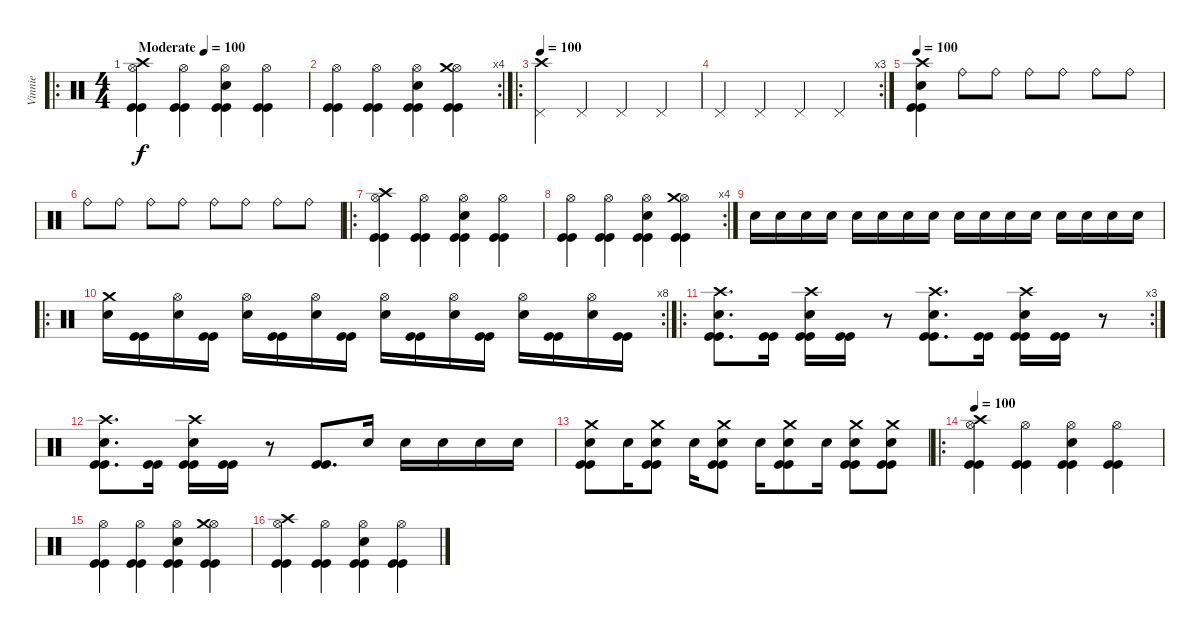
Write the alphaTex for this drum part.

\track ("Vinnie" "Vinnie") {instrument percussion}
\staff {score}
\articulation defaults
\ro
\ts (4 4)
\tempo (100 "Moderate")
\clef neutral
\ks c
("Hi-Hat (open)" "Crash high (hit)" "Kick (hit)" "Kick (hit)").4{dy f} ("Hi-Hat (open)" "Kick (hit)" "Kick (hit)").4 ("Hi-Hat (open)" "Snare (hit) 2" "Kick (hit)" "Kick (hit)").4 ("Hi-Hat (open)" "Kick (hit)" "Kick (hit)").4 |
\rc 4
("Hi-Hat (open)" "Kick (hit)" "Kick (hit)").4 ("Hi-Hat (open)" "Kick (hit)" "Kick (hit)").4 ("Hi-Hat (open)" "Snare (hit) 2" "Kick (hit)" "Kick (hit)").4 ("Hi-Hat (open)" "Crash medium (hit)" "Kick (hit)" "Kick (hit)").4 |
\ro
\tempo 100
("Pedal Hi-Hat (hit)" "Crash high (hit)").4 "Pedal Hi-Hat (hit)".4 "Pedal Hi-Hat (hit)".4 "Pedal Hi-Hat (hit)".4 |
\rc 3 "Pedal Hi-Hat (hit)".4 "Pedal Hi-Hat (hit)".4 "Pedal Hi-Hat (hit)".4 "Pedal Hi-Hat (hit)".4
|
\tempo 100
("Crash high (hit)" "Snare (hit) 2" "Kick (hit)" "Kick (hit)").4 "Ride (bell)".8{volume 5} "Ride (bell)".8 "Ride (bell)".8{volume 13} "Ride (bell)".8 "Ride (bell)".8 "Ride (bell)".8 |
"Ride (bell)".8 "Ride (bell)".8 "Ride (bell)".8 "Ride (bell)".8 "Ride (bell)".8 "Ride (bell)".8 "Ride (bell)".8 "Ride (bell)".8 |
\ro
("Hi-Hat (open)" "Crash high (hit)" "Kick (hit)" "Kick (hit)").4 ("Hi-Hat (open)" "Kick (hit)" "Kick (hit)").4 ("Hi-Hat (open)" "Snare (hit) 2" "Kick (hit)" "Kick (hit)").4 ("Hi-Hat (open)" "Kick (hit)" "Kick (hit)").4 |
\rc 4
("Hi-Hat (open)" "Kick (hit)" "Kick (hit)").4 ("Hi-Hat (open)" "Kick (hit)" "Kick (hit)").4 ("Hi-Hat (open)" "Snare (hit) 2" "Kick (hit)" "Kick (hit)").4 ("Hi-Hat (open)" "Crash medium (hit)" "Kick (hit)" "Kick (hit)").4 |
"Snare (hit) 2".16{volume 5} "Snare (hit) 2".16{volume 13} "Snare (hit) 2".16 "Snare (hit) 2".16 "Snare (hit) 2".16 "Snare (hit) 2".16 "Snare (hit) 2".16 "Snare (hit) 2".16 "Snare (hit) 2".16 "Snare (hit) 2".16 "Snare (hit) 2".16 "Snare (hit) 2".16 "Snare (hit) 2".16 "Snare (hit) 2".16 "Snare (hit) 2".16 "Snare (hit) 2".16 |
\ro
\rc 8
("Crash medium (hit)" "Snare (hit) 2").16 ("Kick (hit)" "Kick (hit)").16 ("Hi-Hat (open)" "Snare (hit) 2").16 ("Kick (hit)" "Kick (hit)").16 ("Hi-Hat (open)" "Snare (hit) 2").16 ("Kick (hit)" "Kick (hit)").16 ("Hi-Hat (open)" "Snare (hit) 2").16 ("Kick (hit)" "Kick (hit)").16 ("Hi-Hat (open)" "Snare (hit) 2").16 ("Kick (hit)" "Kick (hit)").16 ("Hi-Hat (open)" "Snare (hit) 2").16 ("Kick (hit)" "Kick (hit)").16 ("Hi-Hat (open)" "Snare (hit) 2").16 ("Kick (hit)" "Kick (hit)").16 ("Hi-Hat (open)" "Snare (hit) 2").16 ("Kick (hit)" "Kick (hit)").16 |
\ro
\rc 3
("Crash high (hit)" "Snare (hit) 2" "Kick (hit)" "Kick (hit)").8{d} ("Kick (hit)" "Kick (hit)").16 ("Crash high (hit)" "Snare (hit) 2" "Kick (hit)" "Kick (hit)").16 ("Kick (hit)" "Kick (hit)").16 r.8 ("Crash high (hit)" "Snare (hit) 2" "Kick (hit)" "Kick (hit)").8{d} ("Kick (hit)" "Kick (hit)").16 ("Crash high (hit)" "Snare (hit) 2" "Kick (hit)" "Kick (hit)").16 ("Kick (hit)" "Kick (hit)").16 r.8 |
("Crash high (hit)" "Snare (hit) 2" "Kick (hit)" "Kick (hit)").8{d} ("Kick (hit)" "Kick (hit)").16 ("Crash high (hit)" "Snare (hit) 2" "Kick (hit)" "Kick (hit)").16 ("Kick (hit)" "Kick (hit)").16 r.8 ("Kick (hit)" "Kick (hit)").8{d} "Snare (hit) 2".16 "Snare (hit) 2".16 "Snare (hit) 2".16 "Snare (hit) 2".16 "Snare (hit) 2".16 |
("Crash medium (hit)" "Snare (hit) 2" "Kick (hit)" "Kick (hit)").8 "Snare (hit) 2".16 ("Crash medium (hit)" "Snare (hit) 2" "Kick (hit)" "Kick (hit)").8 "Snare (hit) 2".16 ("Crash medium (hit)" "Snare (hit) 2" "Kick (hit)" "Kick (hit)").8 "Snare (hit) 2".16 ("Crash medium (hit)" "Snare (hit) 2" "Kick (hit)" "Kick (hit)").8 "Snare (hit) 2".16 ("Crash medium (hit)" "Snare (hit) 2" "Kick (hit)" "Kick (hit)").8 ("Crash medium (hit)" "Snare (hit) 2" "Kick (hit)" "Kick (hit)").8 |
\ro
\tempo 100
("Hi-Hat (open)" "Crash high (hit)" "Kick (hit)" "Kick (hit)").4 ("Hi-Hat (open)" "Kick (hit)" "Kick (hit)").4 ("Hi-Hat (open)" "Snare (hit) 2" "Kick (hit)" "Kick (hit)").4 ("Hi-Hat (open)" "Kick (hit)" "Kick (hit)").4 |
("Hi-Hat (open)" "Kick (hit)" "Kick (hit)").4 ("Hi-Hat (open)" "Kick (hit)" "Kick (hit)").4 ("Hi-Hat (open)" "Snare (hit) 2" "Kick (hit)" "Kick (hit)").4 ("Hi-Hat (open)" "Crash medium (hit)" "Kick (hit)" "Kick (hit)").4 |
("Hi-Hat (open)" "Crash high (hit)" "Kick (hit)" "Kick (hit)").4 ("Hi-Hat (open)" "Kick (hit)" "Kick (hit)").4 ("Hi-Hat (open)" "Snare (hit) 2" "Kick (hit)" "Kick (hit)").4 ("Hi-Hat (open)" "Kick (hit)" "Kick (hit)").4
